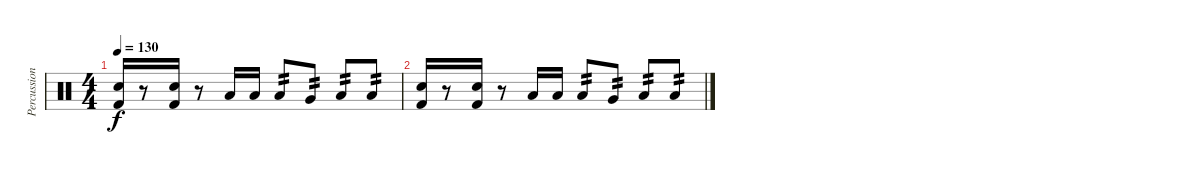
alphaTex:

\track ("Percussion" "Percussion") {instrument percussion}
\staff {score}
\articulation defaults
\ts (4 4)
\tempo 130
\clef neutral
\ks c
("Snare (hit) 2" "Kick (hit) 2").16{dy f} r.8 ("Snare (hit) 2" "Kick (hit) 2").16 r.8 "Low Tom (hit)".16 "Low Tom (hit)".16 "Low Tom (hit)".8{tp 2} "Very Low Tom (hit)".8{tp 2} "Low Floor Tom (hit)".8{tp 2} "Low Floor Tom (hit)".8{tp 2} |
("Snare (hit) 2" "Kick (hit) 2").16 r.8 ("Snare (hit) 2" "Kick (hit) 2").16 r.8 "Low Tom (hit)".16 "Low Tom (hit)".16 "Low Tom (hit)".8{tp 2} "Very Low Tom (hit)".8{tp 2} "Low Floor Tom (hit)".8{tp 2} "Low Floor Tom (hit)".8{tp 2}
